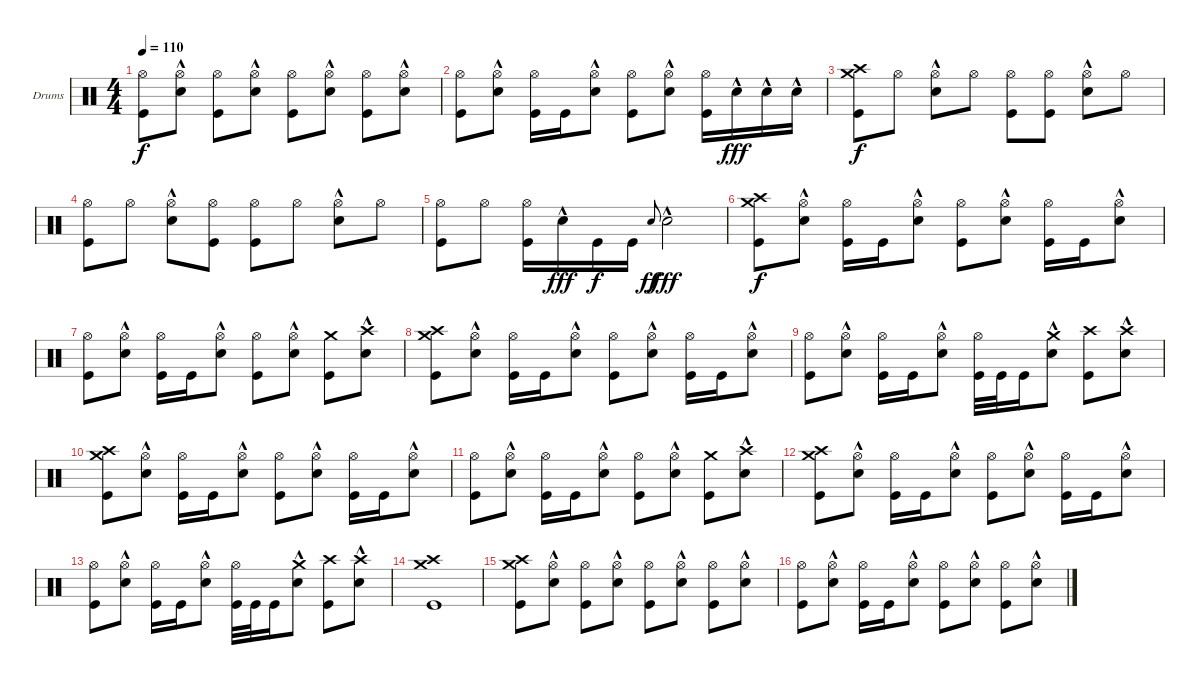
\bracketExtendMode groupsimilarinstruments
\firstSystemTrackNameOrientation horizontal
\otherSystemsTrackNameOrientation horizontal
\track ("Drumkit (Christoph)" "Drums") {instrument percussion}
\staff {score}
\articulation defaults
\ts (4 4)
\tempo 110
\clef neutral
\ks c
("Hi-Hat (open)" "Kick (hit)").8{dy f} ("Hi-Hat (open)" "Snare (hit) 2"{hac}).8 ("Hi-Hat (open)" "Kick (hit)").8 ("Hi-Hat (open)" "Snare (hit) 2"{hac}).8 ("Hi-Hat (open)" "Kick (hit)").8 ("Hi-Hat (open)" "Snare (hit) 2"{hac}).8 ("Hi-Hat (open)" "Kick (hit)").8 ("Hi-Hat (open)" "Snare (hit) 2"{hac}).8 |
("Hi-Hat (open)" "Kick (hit)").8 ("Hi-Hat (open)" "Snare (hit) 2"{hac}).8 ("Hi-Hat (open)" "Kick (hit)").16 "Kick (hit)".16 ("Hi-Hat (open)" "Snare (hit) 2"{hac}).8 ("Hi-Hat (open)" "Kick (hit)").8 ("Hi-Hat (open)" "Snare (hit) 2"{hac}).8 ("Hi-Hat (open)" "Kick (hit)").16 "Snare (hit) 2"{hac}.16{dy fff} "Snare (hit) 2"{hac}.16 "Snare (hit) 2"{hac}.16 |
("Crash medium (hit)" "Kick (hit)" "Crash high (hit)").8{dy f} "Hi-Hat (open)".8 ("Hi-Hat (open)" "Snare (hit) 2"{hac}).8 "Hi-Hat (open)".8 ("Hi-Hat (open)" "Kick (hit)").8 ("Hi-Hat (open)" "Kick (hit)").8 ("Hi-Hat (open)" "Snare (hit) 2"{hac}).8 "Hi-Hat (open)".8 |
("Hi-Hat (open)" "Kick (hit)").8 "Hi-Hat (open)".8 ("Hi-Hat (open)" "Snare (hit) 2"{hac}).8 ("Hi-Hat (open)" "Kick (hit)").8 ("Hi-Hat (open)" "Kick (hit)").8 "Hi-Hat (open)".8 ("Hi-Hat (open)" "Snare (hit) 2"{hac}).8 "Hi-Hat (open)".8 |
("Hi-Hat (open)" "Kick (hit)").8 "Hi-Hat (open)".8 ("Hi-Hat (open)" "Kick (hit)").16 "Snare (hit) 2"{hac}.16{dy fff} "Kick (hit)".16{dy f} "Kick (hit)".16 "Snare (hit) 2".8{gr onbeat dy ff} "Snare (hit) 2"{hac}.2{dy fff} |
("Crash medium (hit)" "Kick (hit)" "Crash high (hit)").8{dy f} ("Hi-Hat (open)" "Snare (hit) 2"{hac}).8 ("Hi-Hat (open)" "Kick (hit)").16 "Kick (hit)".16 ("Hi-Hat (open)" "Snare (hit) 2"{hac}).8 ("Hi-Hat (open)" "Kick (hit)").8 ("Hi-Hat (open)" "Snare (hit) 2"{hac}).8 ("Hi-Hat (open)" "Kick (hit)").16 "Kick (hit)".16 ("Hi-Hat (open)" "Snare (hit) 2"{hac}).8 |
("Hi-Hat (open)" "Kick (hit)").8 ("Hi-Hat (open)" "Snare (hit) 2"{hac}).8 ("Hi-Hat (open)" "Kick (hit)").16 "Kick (hit)".16 ("Hi-Hat (open)" "Snare (hit) 2"{hac}).8 ("Hi-Hat (open)" "Kick (hit)").8 ("Hi-Hat (open)" "Snare (hit) 2"{hac}).8 ("Crash medium (hit)" "Kick (hit)").8 ("Crash high (hit)" "Snare (hit) 2"{hac}).8 |
("Crash medium (hit)" "Kick (hit)" "Crash high (hit)").8 ("Hi-Hat (open)" "Snare (hit) 2"{hac}).8 ("Hi-Hat (open)" "Kick (hit)").16 "Kick (hit)".16 ("Hi-Hat (open)" "Snare (hit) 2"{hac}).8 ("Hi-Hat (open)" "Kick (hit)").8 ("Hi-Hat (open)" "Snare (hit) 2"{hac}).8 ("Hi-Hat (open)" "Kick (hit)").16 "Kick (hit)".16 ("Hi-Hat (open)" "Snare (hit) 2"{hac}).8 |
("Hi-Hat (open)" "Kick (hit)").8 ("Hi-Hat (open)" "Snare (hit) 2"{hac}).8 ("Hi-Hat (open)" "Kick (hit)").16 "Kick (hit)".16 ("Hi-Hat (open)" "Snare (hit) 2"{hac}).8 ("Hi-Hat (open)" "Kick (hit)").32 "Kick (hit)".32 "Kick (hit)".16 ("Crash medium (hit)" "Snare (hit) 2"{hac}).8 ("Crash high (hit)" "Kick (hit)").8 ("Crash high (hit)" "Snare (hit) 2"{hac}).8 |
("Crash medium (hit)" "Kick (hit)" "Crash high (hit)").8 ("Hi-Hat (open)" "Snare (hit) 2"{hac}).8 ("Hi-Hat (open)" "Kick (hit)").16 "Kick (hit)".16 ("Hi-Hat (open)" "Snare (hit) 2"{hac}).8 ("Hi-Hat (open)" "Kick (hit)").8 ("Hi-Hat (open)" "Snare (hit) 2"{hac}).8 ("Hi-Hat (open)" "Kick (hit)").16 "Kick (hit)".16 ("Hi-Hat (open)" "Snare (hit) 2"{hac}).8 |
("Hi-Hat (open)" "Kick (hit)").8 ("Hi-Hat (open)" "Snare (hit) 2"{hac}).8 ("Hi-Hat (open)" "Kick (hit)").16 "Kick (hit)".16 ("Hi-Hat (open)" "Snare (hit) 2"{hac}).8 ("Hi-Hat (open)" "Kick (hit)").8 ("Hi-Hat (open)" "Snare (hit) 2"{hac}).8 ("Crash medium (hit)" "Kick (hit)").8 ("Crash high (hit)" "Snare (hit) 2"{hac}).8 |
("Crash medium (hit)" "Kick (hit)" "Crash high (hit)").8 ("Hi-Hat (open)" "Snare (hit) 2"{hac}).8 ("Hi-Hat (open)" "Kick (hit)").16 "Kick (hit)".16 ("Hi-Hat (open)" "Snare (hit) 2"{hac}).8 ("Hi-Hat (open)" "Kick (hit)").8 ("Hi-Hat (open)" "Snare (hit) 2"{hac}).8 ("Hi-Hat (open)" "Kick (hit)").16 "Kick (hit)".16 ("Hi-Hat (open)" "Snare (hit) 2"{hac}).8 |
("Hi-Hat (open)" "Kick (hit)").8 ("Hi-Hat (open)" "Snare (hit) 2"{hac}).8 ("Hi-Hat (open)" "Kick (hit)").16 "Kick (hit)".16 ("Hi-Hat (open)" "Snare (hit) 2"{hac}).8 ("Hi-Hat (open)" "Kick (hit)").32 "Kick (hit)".32 "Kick (hit)".16 ("Crash medium (hit)" "Snare (hit) 2"{hac}).8 ("Crash high (hit)" "Kick (hit)").8 ("Crash high (hit)" "Snare (hit) 2"{hac}).8 |
("Crash medium (hit)" "Kick (hit)" "Crash high (hit)").1 |
("Crash medium (hit)" "Kick (hit)" "Crash high (hit)").8 ("Hi-Hat (open)" "Snare (hit) 2"{hac}).8 ("Hi-Hat (open)" "Kick (hit)").8 ("Hi-Hat (open)" "Snare (hit) 2"{hac}).8 ("Hi-Hat (open)" "Kick (hit)").8 ("Hi-Hat (open)" "Snare (hit) 2"{hac}).8 ("Hi-Hat (open)" "Kick (hit)").8 ("Hi-Hat (open)" "Snare (hit) 2"{hac}).8 |
("Hi-Hat (open)" "Kick (hit)").8 ("Hi-Hat (open)" "Snare (hit) 2"{hac}).8 ("Hi-Hat (open)" "Kick (hit)").16 "Kick (hit)".16 ("Hi-Hat (open)" "Snare (hit) 2"{hac}).8 ("Hi-Hat (open)" "Kick (hit)").8 ("Hi-Hat (open)" "Snare (hit) 2"{hac}).8 ("Hi-Hat (open)" "Kick (hit)").8 ("Hi-Hat (open)" "Snare (hit) 2"{hac}).8
